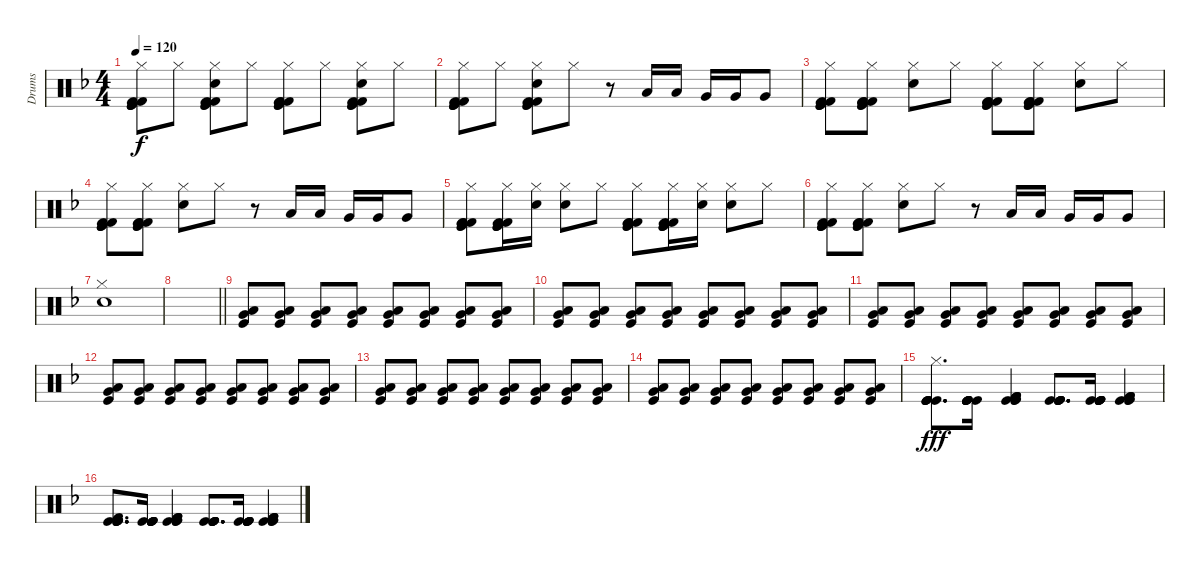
\track ("Drums" "Drums") {instrument percussion}
\staff {score}
\articulation defaults
\ts (4 4)
\tempo 120
\clef neutral
\ks f
("Hi-Hat (closed)" "Kick (hit) 2" "Kick (hit) 2" "Kick (hit)" "Kick (hit)" "Kick (hit)").8{dy f} "Hi-Hat (closed)".8 ("Hi-Hat (closed)" "Snare (hit) 2" "Kick (hit) 2" "Kick (hit)" "Kick (hit) 2" "Kick (hit)").8 "Hi-Hat (closed)".8 ("Hi-Hat (closed)" "Kick (hit) 2" "Kick (hit) 2" "Kick (hit) 2" "Kick (hit)" "Kick (hit)").8 "Hi-Hat (closed)".8 ("Hi-Hat (closed)" "Snare (hit) 2" "Kick (hit) 2" "Kick (hit) 2" "Kick (hit)" "Kick (hit)").8 "Hi-Hat (closed)".8 |
("Hi-Hat (closed)" "Kick (hit) 2" "Kick (hit) 2" "Kick (hit)" "Kick (hit)" "Kick (hit)").8 "Hi-Hat (closed)".8 ("Hi-Hat (closed)" "Snare (hit) 2" "Kick (hit) 2" "Kick (hit)" "Kick (hit) 2" "Kick (hit)").8 "Hi-Hat (closed)".8 r.8 "Low Tom (hit)".16 "Low Tom (hit)".16 "Very Low Tom (hit)".16 "Very Low Tom (hit)".16 "Very Low Tom (hit)".8 |
("Hi-Hat (closed)" "Kick (hit) 2" "Kick (hit) 2" "Kick (hit)" "Kick (hit)" "Kick (hit)").8 ("Hi-Hat (closed)" "Kick (hit) 2" "Kick (hit) 2" "Kick (hit) 2" "Kick (hit)" "Kick (hit)").8 ("Hi-Hat (closed)" "Snare (hit) 2").8 "Hi-Hat (closed)".8 ("Hi-Hat (closed)" "Kick (hit) 2" "Kick (hit) 2" "Kick (hit) 2" "Kick (hit)" "Kick (hit)").8 ("Hi-Hat (closed)" "Kick (hit) 2" "Kick (hit) 2" "Kick (hit) 2" "Kick (hit)" "Kick (hit)").8 ("Hi-Hat (closed)" "Snare (hit) 2").8 "Hi-Hat (closed)".8 |
("Hi-Hat (closed)" "Kick (hit) 2" "Kick (hit) 2" "Kick (hit)" "Kick (hit)" "Kick (hit)").8 ("Hi-Hat (closed)" "Kick (hit) 2" "Kick (hit) 2" "Kick (hit) 2" "Kick (hit)" "Kick (hit)").8 ("Hi-Hat (closed)" "Snare (hit) 2").8 "Hi-Hat (closed)".8 r.8 "Low Tom (hit)".16 "Low Tom (hit)".16 "Very Low Tom (hit)".16 "Very Low Tom (hit)".16 "Very Low Tom (hit)".8 |
("Hi-Hat (closed)" "Kick (hit) 2" "Kick (hit) 2" "Kick (hit) 2" "Kick (hit)" "Kick (hit)").8 ("Hi-Hat (closed)" "Kick (hit) 2" "Kick (hit) 2" "Kick (hit)" "Kick (hit)" "Kick (hit)").16 ("Hi-Hat (closed)" "Snare (hit) 2").16 ("Hi-Hat (closed)" "Snare (hit) 2").8 "Hi-Hat (closed)".8 ("Hi-Hat (closed)" "Kick (hit) 2" "Kick (hit) 2" "Kick (hit) 2" "Kick (hit)" "Kick (hit)").8 ("Hi-Hat (closed)" "Kick (hit) 2" "Kick (hit) 2" "Kick (hit)" "Kick (hit)" "Kick (hit)").16 ("Hi-Hat (closed)" "Snare (hit) 2").16 ("Hi-Hat (closed)" "Snare (hit) 2").8 "Hi-Hat (closed)".8 |
("Hi-Hat (closed)" "Kick (hit) 2" "Kick (hit) 2" "Kick (hit)" "Kick (hit)" "Kick (hit)").8 ("Hi-Hat (closed)" "Kick (hit) 2" "Kick (hit) 2" "Kick (hit) 2" "Kick (hit)" "Kick (hit)").8 ("Hi-Hat (closed)" "Snare (hit) 2").8 "Hi-Hat (closed)".8 r.8 "Low Tom (hit)".16 "Low Tom (hit)".16 "Very Low Tom (hit)".16 "Very Low Tom (hit)".16 "Very Low Tom (hit)".8 |
("Hi-Hat (closed)" "Snare (hit) 2").1 |
\barLineRight lightlight
|
("Very Low Tom (hit)" "Kick (hit)" "Low Tom (hit)").8 ("Very Low Tom (hit)" "Kick (hit)" "Low Tom (hit)").8 ("Very Low Tom (hit)" "Kick (hit)" "Low Tom (hit)").8 ("Very Low Tom (hit)" "Kick (hit)" "Low Tom (hit)").8 ("Very Low Tom (hit)" "Kick (hit)" "Low Tom (hit)").8 ("Very Low Tom (hit)" "Kick (hit)" "Low Tom (hit)").8 ("Very Low Tom (hit)" "Kick (hit)" "Low Tom (hit)").8 ("Very Low Tom (hit)" "Kick (hit)" "Low Tom (hit)").8 |
("Very Low Tom (hit)" "Kick (hit)" "Low Tom (hit)").8 ("Very Low Tom (hit)" "Kick (hit)" "Low Tom (hit)").8 ("Very Low Tom (hit)" "Kick (hit)" "Low Tom (hit)").8 ("Very Low Tom (hit)" "Kick (hit)" "Low Tom (hit)").8 ("Very Low Tom (hit)" "Kick (hit)" "Low Tom (hit)").8 ("Very Low Tom (hit)" "Kick (hit)" "Low Tom (hit)").8 ("Very Low Tom (hit)" "Kick (hit)" "Low Tom (hit)").8 ("Very Low Tom (hit)" "Kick (hit)" "Low Tom (hit)").8 |
("Very Low Tom (hit)" "Kick (hit)" "Low Tom (hit)").8 ("Very Low Tom (hit)" "Kick (hit)" "Low Tom (hit)").8 ("Very Low Tom (hit)" "Kick (hit)" "Low Tom (hit)").8 ("Very Low Tom (hit)" "Kick (hit)" "Low Tom (hit)").8 ("Very Low Tom (hit)" "Kick (hit)" "Low Tom (hit)").8 ("Very Low Tom (hit)" "Kick (hit)" "Low Tom (hit)").8 ("Very Low Tom (hit)" "Kick (hit)" "Low Tom (hit)").8 ("Very Low Tom (hit)" "Kick (hit)" "Low Tom (hit)").8 |
("Very Low Tom (hit)" "Kick (hit)" "Low Tom (hit)").8 ("Very Low Tom (hit)" "Kick (hit)" "Low Tom (hit)").8 ("Very Low Tom (hit)" "Kick (hit)" "Low Tom (hit)").8 ("Very Low Tom (hit)" "Kick (hit)" "Low Tom (hit)").8 ("Very Low Tom (hit)" "Kick (hit)" "Low Tom (hit)").8 ("Very Low Tom (hit)" "Kick (hit)" "Low Tom (hit)").8 ("Very Low Tom (hit)" "Kick (hit)" "Low Tom (hit)").8 ("Very Low Tom (hit)" "Kick (hit)" "Low Tom (hit)").8 |
("Very Low Tom (hit)" "Kick (hit)" "Low Tom (hit)").8 ("Very Low Tom (hit)" "Kick (hit)" "Low Tom (hit)").8 ("Very Low Tom (hit)" "Kick (hit)" "Low Tom (hit)").8 ("Very Low Tom (hit)" "Kick (hit)" "Low Tom (hit)").8 ("Very Low Tom (hit)" "Kick (hit)" "Low Tom (hit)").8 ("Very Low Tom (hit)" "Kick (hit)" "Low Tom (hit)").8 ("Very Low Tom (hit)" "Kick (hit)" "Low Tom (hit)").8 ("Very Low Tom (hit)" "Kick (hit)" "Low Tom (hit)").8 |
("Very Low Tom (hit)" "Kick (hit)" "Low Tom (hit)").8 ("Very Low Tom (hit)" "Kick (hit)" "Low Tom (hit)").8 ("Very Low Tom (hit)" "Kick (hit)" "Low Tom (hit)").8 ("Very Low Tom (hit)" "Kick (hit)" "Low Tom (hit)").8 ("Very Low Tom (hit)" "Kick (hit)" "Low Tom (hit)").8 ("Very Low Tom (hit)" "Kick (hit)" "Low Tom (hit)").8 ("Very Low Tom (hit)" "Kick (hit)" "Low Tom (hit)").8 ("Very Low Tom (hit)" "Kick (hit)" "Low Tom (hit)").8 |
("Hi-Hat (closed)" "Kick (hit)" "Kick (hit)" "Kick (hit)" "Kick (hit)" "Kick (hit)").8{d dy fff} ("Kick (hit)" "Kick (hit)" "Kick (hit)" "Kick (hit)" "Kick (hit)" "Kick (hit)").16 ("Kick (hit)" "Kick (hit) 2" "Kick (hit)" "Kick (hit) 2" "Kick (hit)" "Kick (hit) 2").4 ("Kick (hit)" "Kick (hit)" "Kick (hit)" "Kick (hit)" "Kick (hit)" "Kick (hit)").8{d} ("Kick (hit)" "Kick (hit)" "Kick (hit)" "Kick (hit)" "Kick (hit)" "Kick (hit)").16 ("Kick (hit)" "Kick (hit) 2" "Kick (hit)" "Kick (hit) 2" "Kick (hit)" "Kick (hit) 2").4 |
("Kick (hit) 2" "Kick (hit)" "Kick (hit)" "Kick (hit)" "Kick (hit)" "Kick (hit)").8{d} ("Kick (hit)" "Kick (hit)" "Kick (hit)" "Kick (hit)" "Kick (hit)" "Kick (hit)").16 ("Kick (hit)" "Kick (hit) 2" "Kick (hit)" "Kick (hit) 2" "Kick (hit)" "Kick (hit) 2").4 ("Kick (hit)" "Kick (hit)" "Kick (hit)" "Kick (hit)" "Kick (hit)" "Kick (hit)").8{d} ("Kick (hit)" "Kick (hit)" "Kick (hit)" "Kick (hit)" "Kick (hit)" "Kick (hit)").16 ("Kick (hit)" "Kick (hit) 2" "Kick (hit)" "Kick (hit) 2" "Kick (hit)" "Kick (hit) 2").4
